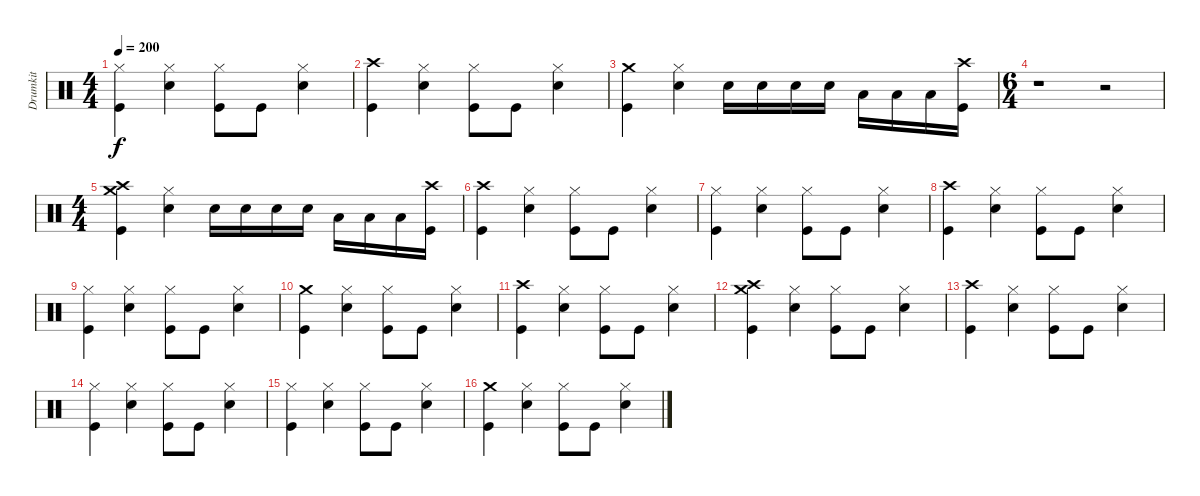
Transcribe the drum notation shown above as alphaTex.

\track ("Drumkit" "Drumkit") {instrument percussion}
\staff {score}
\articulation defaults
\ts (4 4)
\tempo 200
\clef neutral
\ks c
("Hi-Hat (closed)" "Kick (hit)").4{dy f} ("Hi-Hat (closed)" "Snare (hit) 2").4 ("Hi-Hat (closed)" "Kick (hit)").8 "Kick (hit)".8 ("Hi-Hat (closed)" "Snare (hit) 2").4 |
("Crash high (hit)" "Kick (hit)").4 ("Hi-Hat (closed)" "Snare (hit) 2").4 ("Hi-Hat (closed)" "Kick (hit)").8 "Kick (hit)".8 ("Hi-Hat (closed)" "Snare (hit) 2").4 |
("Crash medium (hit)" "Kick (hit)").4 ("Hi-Hat (closed)" "Snare (hit) 2").4 "Snare (hit) 2".16 "Snare (hit) 2".16 "Snare (hit) 2".16 "Snare (hit) 2".16 "Low Floor Tom (hit)".16 "Low Floor Tom (hit)".16 "Low Tom (hit)".16 ("Crash high (hit)" "Kick (hit)").16 |
\ts (6 4)
r.1 r.2 |
\ts (4 4)
("Crash medium (hit)" "Crash high (hit)" "Kick (hit)").4 ("Hi-Hat (closed)" "Snare (hit) 2").4 "Snare (hit) 2".16 "Snare (hit) 2".16 "Snare (hit) 2".16 "Snare (hit) 2".16 "Low Floor Tom (hit)".16 "Low Floor Tom (hit)".16 "Low Tom (hit)".16 ("Crash high (hit)" "Kick (hit)").16 |
("Crash high (hit)" "Kick (hit)").4 ("Hi-Hat (closed)" "Snare (hit) 2").4 ("Hi-Hat (closed)" "Kick (hit)").8 "Kick (hit)".8 ("Hi-Hat (closed)" "Snare (hit) 2").4 |
("Hi-Hat (closed)" "Kick (hit)").4 ("Hi-Hat (closed)" "Snare (hit) 2").4 ("Hi-Hat (closed)" "Kick (hit)").8 "Kick (hit)".8 ("Hi-Hat (closed)" "Snare (hit) 2").4 |
("Crash high (hit)" "Kick (hit)").4 ("Hi-Hat (closed)" "Snare (hit) 2").4 ("Hi-Hat (closed)" "Kick (hit)").8 "Kick (hit)".8 ("Hi-Hat (closed)" "Snare (hit) 2").4 |
("Hi-Hat (closed)" "Kick (hit)").4 ("Hi-Hat (closed)" "Snare (hit) 2").4 ("Hi-Hat (closed)" "Kick (hit)").8 "Kick (hit)".8 ("Hi-Hat (closed)" "Snare (hit) 2").4 |
("Crash medium (hit)" "Kick (hit)").4 ("Hi-Hat (closed)" "Snare (hit) 2").4 ("Hi-Hat (closed)" "Kick (hit)").8 "Kick (hit)".8 ("Hi-Hat (closed)" "Snare (hit) 2").4 |
("Crash high (hit)" "Kick (hit)").4 ("Hi-Hat (closed)" "Snare (hit) 2").4 ("Hi-Hat (closed)" "Kick (hit)").8 "Kick (hit)".8 ("Hi-Hat (closed)" "Snare (hit) 2").4 |
("Crash medium (hit)" "Crash high (hit)" "Kick (hit)").4 ("Hi-Hat (closed)" "Snare (hit) 2").4 ("Hi-Hat (closed)" "Kick (hit)").8 "Kick (hit)".8 ("Hi-Hat (closed)" "Snare (hit) 2").4 |
("Crash high (hit)" "Kick (hit)").4 ("Hi-Hat (closed)" "Snare (hit) 2").4 ("Hi-Hat (closed)" "Kick (hit)").8 "Kick (hit)".8 ("Hi-Hat (closed)" "Snare (hit) 2").4 |
("Hi-Hat (closed)" "Kick (hit)").4 ("Hi-Hat (closed)" "Snare (hit) 2").4 ("Hi-Hat (closed)" "Kick (hit)").8 "Kick (hit)".8 ("Hi-Hat (closed)" "Snare (hit) 2").4 |
("Hi-Hat (closed)" "Kick (hit)").4 ("Hi-Hat (closed)" "Snare (hit) 2").4 ("Hi-Hat (closed)" "Kick (hit)").8 "Kick (hit)".8 ("Hi-Hat (closed)" "Snare (hit) 2").4 |
("Crash medium (hit)" "Kick (hit)").4 ("Hi-Hat (closed)" "Snare (hit) 2").4 ("Hi-Hat (closed)" "Kick (hit)").8 "Kick (hit)".8 ("Hi-Hat (closed)" "Snare (hit) 2").4
